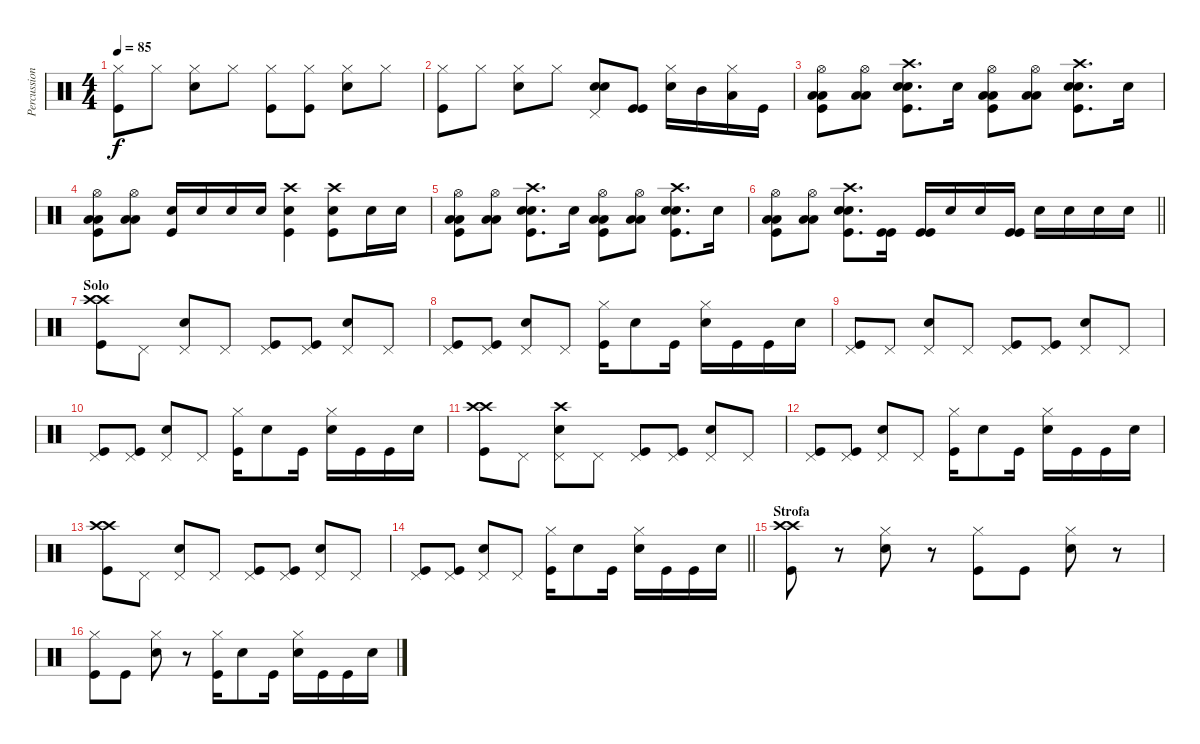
\track ("Percussioni" "Percussion") {instrument percussion}
\staff {score}
\articulation defaults
\ts (4 4)
\tempo 85
\clef neutral
\ks c
("Hi-Hat (closed)" "Kick (hit)").8{dy f} "Hi-Hat (closed)".8 ("Hi-Hat (closed)" "Snare (hit) 2").8 "Hi-Hat (closed)".8 ("Hi-Hat (closed)" "Kick (hit)").8 ("Hi-Hat (closed)" "Kick (hit)").8 ("Hi-Hat (closed)" "Snare (hit) 2").8 "Hi-Hat (closed)".8 |
("Hi-Hat (closed)" "Kick (hit)").8 "Hi-Hat (closed)".8 ("Hi-Hat (closed)" "Snare (hit) 2").8 "Hi-Hat (closed)".8 ("Pedal Hi-Hat (hit)" "Snare (hit) 2" "Snare (hit) 2").8 ("Kick (hit)" "Kick (hit)").8 ("Hi-Hat (closed)" "Snare (hit) 2").16 "Mid Tom (hit)".16 ("Hi-Hat (closed)" "Low Tom (hit)").16 "Kick (hit)".16 |
("Low Tom (hit)" "Low Tom (hit)" "Hi-Hat (open)" "Kick (hit)").8 ("Low Tom (hit)" "Low Tom (hit)" "Hi-Hat (open)").8 ("Crash high (hit)" "Snare (hit) 2" "Snare (hit) 2" "Kick (hit)").8{d} "Snare (hit) 2".16 ("Low Tom (hit)" "Low Tom (hit)" "Hi-Hat (open)" "Kick (hit)").8 ("Low Tom (hit)" "Low Tom (hit)" "Hi-Hat (open)").8 ("Crash high (hit)" "Snare (hit) 2" "Snare (hit) 2" "Kick (hit)").8{d} "Snare (hit) 2".16 |
("Low Tom (hit)" "Low Tom (hit)" "Hi-Hat (open)" "Kick (hit)").8 ("Low Tom (hit)" "Low Tom (hit)" "Hi-Hat (open)").8 ("Snare (hit) 2" "Kick (hit)").16 "Snare (hit) 2".16 "Snare (hit) 2".16 "Snare (hit) 2".16 ("Crash high (hit)" "Snare (hit) 2" "Kick (hit)").4 ("Crash high (hit)" "Snare (hit) 2" "Kick (hit)").8 "Snare (hit) 2".16 "Snare (hit) 2".16 |
("Low Tom (hit)" "Low Tom (hit)" "Hi-Hat (open)" "Kick (hit)").8 ("Low Tom (hit)" "Low Tom (hit)" "Hi-Hat (open)").8 ("Crash high (hit)" "Snare (hit) 2" "Snare (hit) 2" "Kick (hit)").8{d} "Snare (hit) 2".16 ("Low Tom (hit)" "Low Tom (hit)" "Hi-Hat (open)" "Kick (hit)").8 ("Low Tom (hit)" "Low Tom (hit)" "Hi-Hat (open)").8 ("Crash high (hit)" "Snare (hit) 2" "Snare (hit) 2" "Kick (hit)").8{d} "Snare (hit) 2".16 |
\barLineRight lightlight
("Low Tom (hit)" "Low Tom (hit)" "Hi-Hat (open)" "Kick (hit)").8 ("Low Tom (hit)" "Low Tom (hit)" "Hi-Hat (open)").8 ("Crash high (hit)" "Snare (hit) 2" "Snare (hit) 2" "Kick (hit)").8{d} ("Kick (hit)" "Kick (hit)").16 ("Kick (hit)" "Kick (hit)").16 "Snare (hit) 2".16 "Snare (hit) 2".16 ("Kick (hit)" "Kick (hit)").16 "Snare (hit) 2".16 "Snare (hit) 2".16 "Snare (hit) 2".16 "Snare (hit) 2".16 |
\section ("" "Solo")
("Crash high (hit)" "Crash high (hit)" "Kick (hit)").8 "Pedal Hi-Hat (hit)".8 ("Pedal Hi-Hat (hit)" "Snare (hit) 2").8 "Pedal Hi-Hat (hit)".8 ("Pedal Hi-Hat (hit)" "Kick (hit)").8 ("Pedal Hi-Hat (hit)" "Kick (hit)").8 ("Pedal Hi-Hat (hit)" "Snare (hit) 2").8 "Pedal Hi-Hat (hit)".8 |
("Pedal Hi-Hat (hit)" "Kick (hit)").8 ("Pedal Hi-Hat (hit)" "Kick (hit)").8 ("Pedal Hi-Hat (hit)" "Snare (hit) 2").8 "Pedal Hi-Hat (hit)".8 ("Hi-Hat (closed)" "Kick (hit)").16 "Snare (hit) 2".8 "Kick (hit)".16 ("Hi-Hat (closed)" "Snare (hit) 2").16 "Kick (hit)".16 "Kick (hit)".16 "Snare (hit) 2".16 |
("Pedal Hi-Hat (hit)" "Kick (hit)").8 "Pedal Hi-Hat (hit)".8 ("Pedal Hi-Hat (hit)" "Snare (hit) 2").8 "Pedal Hi-Hat (hit)".8 ("Pedal Hi-Hat (hit)" "Kick (hit)").8 ("Pedal Hi-Hat (hit)" "Kick (hit)").8 ("Pedal Hi-Hat (hit)" "Snare (hit) 2").8 "Pedal Hi-Hat (hit)".8 |
("Pedal Hi-Hat (hit)" "Kick (hit)").8 ("Pedal Hi-Hat (hit)" "Kick (hit)").8 ("Pedal Hi-Hat (hit)" "Snare (hit) 2").8 "Pedal Hi-Hat (hit)".8 ("Hi-Hat (closed)" "Kick (hit)").16 "Snare (hit) 2".8 "Kick (hit)".16 ("Hi-Hat (closed)" "Snare (hit) 2").16 "Kick (hit)".16 "Kick (hit)".16 "Snare (hit) 2".16 |
("Crash high (hit)" "Crash high (hit)" "Kick (hit)").8 "Pedal Hi-Hat (hit)".8 ("Crash high (hit)" "Pedal Hi-Hat (hit)" "Snare (hit) 2").8 "Pedal Hi-Hat (hit)".8 ("Pedal Hi-Hat (hit)" "Kick (hit)").8 ("Pedal Hi-Hat (hit)" "Kick (hit)").8 ("Pedal Hi-Hat (hit)" "Snare (hit) 2").8 "Pedal Hi-Hat (hit)".8 |
("Pedal Hi-Hat (hit)" "Kick (hit)").8 ("Pedal Hi-Hat (hit)" "Kick (hit)").8 ("Pedal Hi-Hat (hit)" "Snare (hit) 2").8 "Pedal Hi-Hat (hit)".8 ("Hi-Hat (closed)" "Kick (hit)").16 "Snare (hit) 2".8 "Kick (hit)".16 ("Hi-Hat (closed)" "Snare (hit) 2").16 "Kick (hit)".16 "Kick (hit)".16 "Snare (hit) 2".16 |
("Crash high (hit)" "Crash high (hit)" "Kick (hit)").8 "Pedal Hi-Hat (hit)".8 ("Pedal Hi-Hat (hit)" "Snare (hit) 2").8 "Pedal Hi-Hat (hit)".8 ("Pedal Hi-Hat (hit)" "Kick (hit)").8 ("Pedal Hi-Hat (hit)" "Kick (hit)").8 ("Pedal Hi-Hat (hit)" "Snare (hit) 2").8 "Pedal Hi-Hat (hit)".8 |
\barLineRight lightlight
("Pedal Hi-Hat (hit)" "Kick (hit)").8 ("Pedal Hi-Hat (hit)" "Kick (hit)").8 ("Pedal Hi-Hat (hit)" "Snare (hit) 2").8 "Pedal Hi-Hat (hit)".8 ("Hi-Hat (closed)" "Kick (hit)").16 "Snare (hit) 2".8 "Kick (hit)".16 ("Hi-Hat (closed)" "Snare (hit) 2").16 "Kick (hit)".16 "Kick (hit)".16 "Snare (hit) 2".16 |
\section ("" "Strofa")
("Crash high (hit)" "Crash high (hit)" "Kick (hit)").8 r.8 ("Hi-Hat (closed)" "Snare (hit) 2").8 r.8 ("Hi-Hat (closed)" "Kick (hit)").8 "Kick (hit)".8 ("Hi-Hat (closed)" "Snare (hit) 2").8 r.8 |
("Hi-Hat (closed)" "Kick (hit)").8 "Kick (hit)".8 ("Hi-Hat (closed)" "Snare (hit) 2").8 r.8 ("Hi-Hat (closed)" "Kick (hit)").16 "Snare (hit) 2".8 "Kick (hit)".16 ("Hi-Hat (closed)" "Snare (hit) 2").16 "Kick (hit)".16 "Kick (hit)".16 "Snare (hit) 2".16
